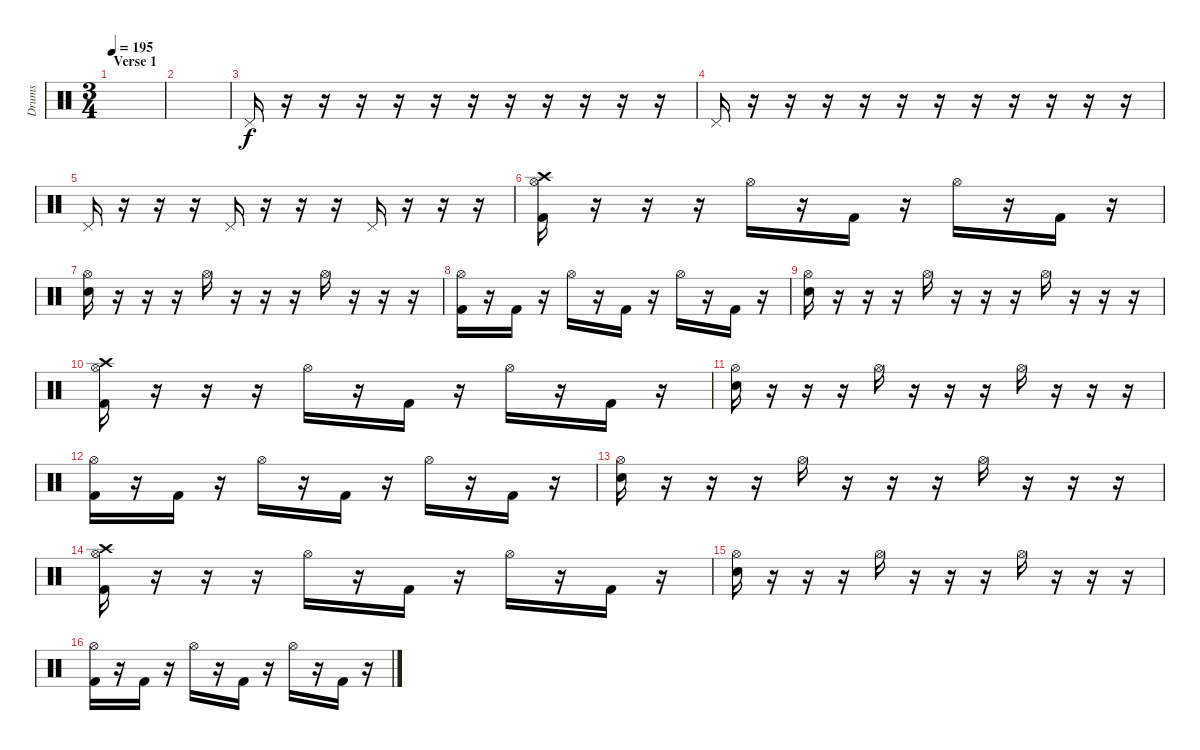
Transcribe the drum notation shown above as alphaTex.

\track ("Drums" "Drums") {instrument percussion}
\staff {score}
\articulation defaults
\ts (3 4)
\section ("" "Verse 1")
\tempo 195
\clef neutral
\ks c
|
|
"Pedal Hi-Hat (hit)".16 r.16 r.16 r.16 r.16 r.16 r.16 r.16 r.16 r.16 r.16 r.16 |
"Pedal Hi-Hat (hit)".16 r.16 r.16 r.16 r.16 r.16 r.16 r.16 r.16 r.16 r.16 r.16 |
"Pedal Hi-Hat (hit)".16 r.16 r.16 r.16 "Pedal Hi-Hat (hit)".16 r.16 r.16 r.16 "Pedal Hi-Hat (hit)".16 r.16 r.16 r.16 |
("Crash high (hit)" "Hi-Hat (open)" "Kick (hit) 2").16 r.16 r.16 r.16 "Hi-Hat (open)".16 r.16 "Kick (hit) 2".16 r.16 "Hi-Hat (open)".16 r.16 "Kick (hit) 2".16 r.16 |
("Hi-Hat (open)" "Snare (hit) 2").16 r.16 r.16 r.16 "Hi-Hat (open)".16 r.16 r.16 r.16 "Hi-Hat (open)".16 r.16 r.16 r.16 |
("Hi-Hat (open)" "Kick (hit) 2").16 r.16 "Kick (hit) 2".16 r.16 "Hi-Hat (open)".16 r.16 "Kick (hit) 2".16 r.16 "Hi-Hat (open)".16 r.16 "Kick (hit) 2".16 r.16 |
("Hi-Hat (open)" "Snare (hit) 2").16 r.16 r.16 r.16 "Hi-Hat (open)".16 r.16 r.16 r.16 "Hi-Hat (open)".16 r.16 r.16 r.16 |
("Crash high (hit)" "Hi-Hat (open)" "Kick (hit) 2").16 r.16 r.16 r.16 "Hi-Hat (open)".16 r.16 "Kick (hit) 2".16 r.16 "Hi-Hat (open)".16 r.16 "Kick (hit) 2".16 r.16 |
("Hi-Hat (open)" "Snare (hit) 2").16 r.16 r.16 r.16 "Hi-Hat (open)".16 r.16 r.16 r.16 "Hi-Hat (open)".16 r.16 r.16 r.16 |
("Hi-Hat (open)" "Kick (hit) 2").16 r.16 "Kick (hit) 2".16 r.16 "Hi-Hat (open)".16 r.16 "Kick (hit) 2".16 r.16 "Hi-Hat (open)".16 r.16 "Kick (hit) 2".16 r.16 |
("Hi-Hat (open)" "Snare (hit) 2").16 r.16 r.16 r.16 "Hi-Hat (open)".16 r.16 r.16 r.16 "Hi-Hat (open)".16 r.16 r.16 r.16 |
("Crash high (hit)" "Hi-Hat (open)" "Kick (hit) 2").16 r.16 r.16 r.16 "Hi-Hat (open)".16 r.16 "Kick (hit) 2".16 r.16 "Hi-Hat (open)".16 r.16 "Kick (hit) 2".16 r.16 |
("Hi-Hat (open)" "Snare (hit) 2").16 r.16 r.16 r.16 "Hi-Hat (open)".16 r.16 r.16 r.16 "Hi-Hat (open)".16 r.16 r.16 r.16 |
("Hi-Hat (open)" "Kick (hit) 2").16 r.16 "Kick (hit) 2".16 r.16 "Hi-Hat (open)".16 r.16 "Kick (hit) 2".16 r.16 "Hi-Hat (open)".16 r.16 "Kick (hit) 2".16 r.16
